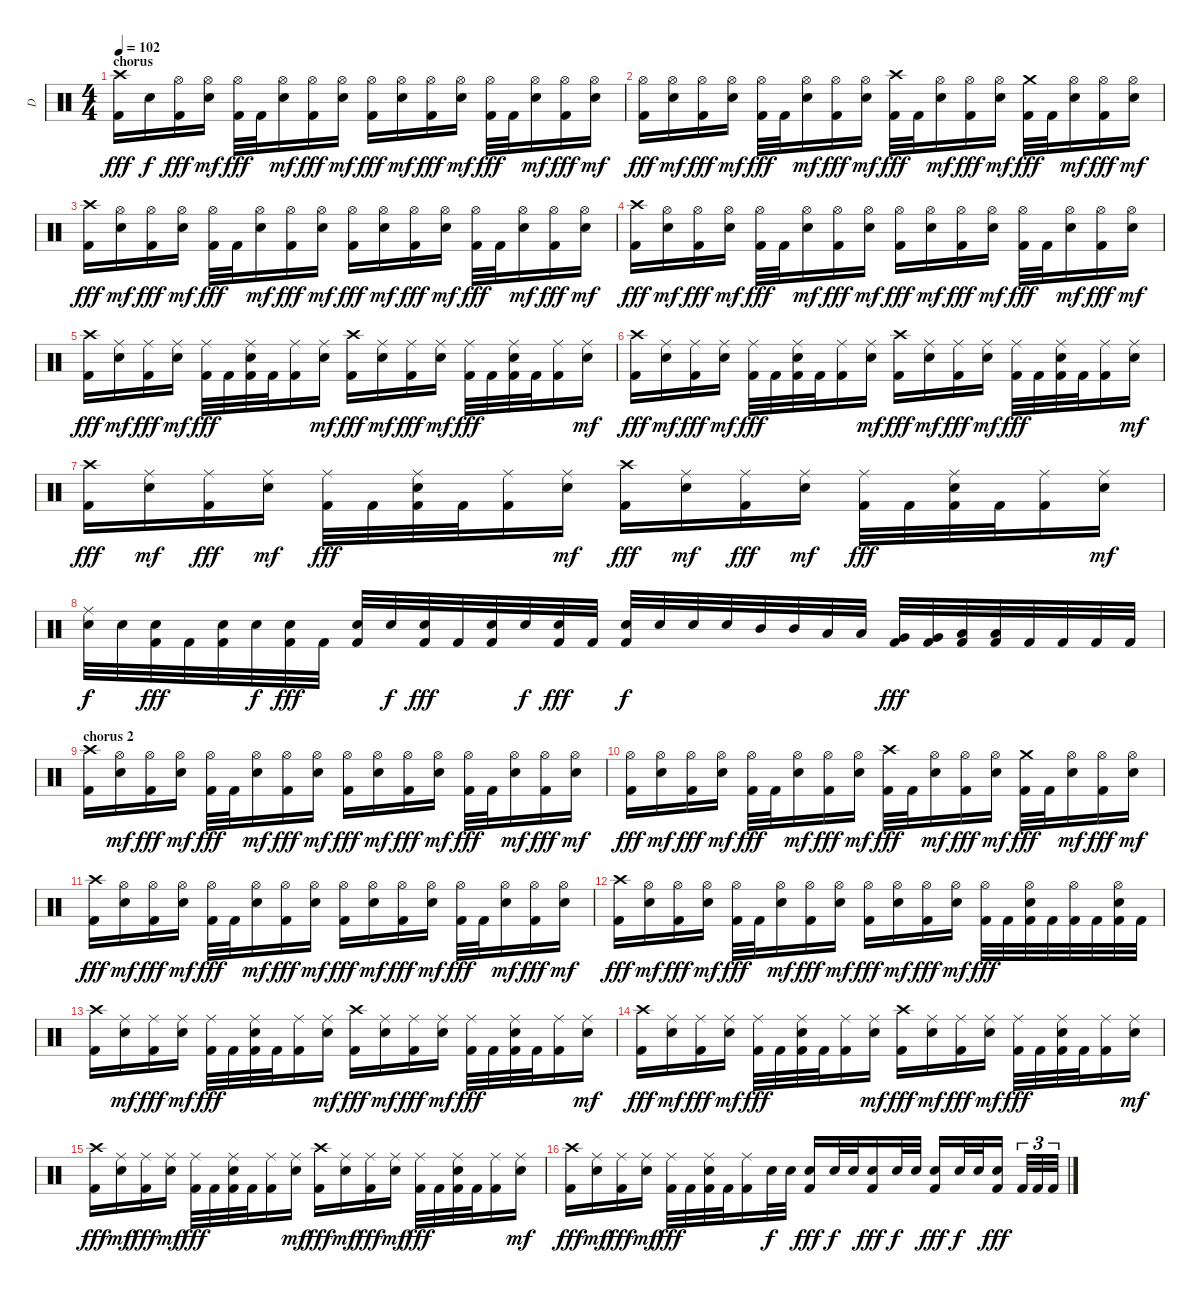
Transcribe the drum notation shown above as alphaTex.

\track ("D" "D") {instrument percussion}
\staff {score}
\articulation defaults
\ts (4 4)
\section ("" "chorus")
\tempo 102
\clef neutral
\ks c
("Crash high (hit)" "Kick (hit) 2").16{dy fff} "Snare (hit) 2".16{dy f} ("Hi-Hat (open)" "Kick (hit) 2").16{dy fff} ("Hi-Hat (open)" "Snare (hit) 2").16{dy mf} ("Hi-Hat (open)" "Kick (hit) 2").32{dy fff} "Kick (hit) 2".32 ("Hi-Hat (open)" "Snare (hit) 2").16{dy mf} ("Hi-Hat (open)" "Kick (hit) 2").16{dy fff} ("Hi-Hat (open)" "Snare (hit) 2").16{dy mf} ("Hi-Hat (open)" "Kick (hit) 2").16{dy fff} ("Hi-Hat (open)" "Snare (hit) 2").16{dy mf} ("Hi-Hat (open)" "Kick (hit) 2").16{dy fff} ("Hi-Hat (open)" "Snare (hit) 2").16{dy mf} ("Hi-Hat (open)" "Kick (hit) 2").32{dy fff} "Kick (hit) 2".32 ("Hi-Hat (open)" "Snare (hit) 2").16{dy mf} ("Hi-Hat (open)" "Kick (hit) 2").16{dy fff} ("Hi-Hat (open)" "Snare (hit) 2").16{dy mf} |
("Hi-Hat (open)" "Kick (hit) 2").16{dy fff} ("Hi-Hat (open)" "Snare (hit) 2").16{dy mf} ("Hi-Hat (open)" "Kick (hit) 2").16{dy fff} ("Hi-Hat (open)" "Snare (hit) 2").16{dy mf} ("Hi-Hat (open)" "Kick (hit) 2").32{dy fff} "Kick (hit) 2".32 ("Hi-Hat (open)" "Snare (hit) 2").16{dy mf} ("Hi-Hat (open)" "Kick (hit) 2").16{dy fff} ("Hi-Hat (open)" "Snare (hit) 2").16{dy mf} ("Crash high (hit)" "Kick (hit) 2").32{dy fff} "Kick (hit) 2".32 ("Hi-Hat (open)" "Snare (hit) 2").16{dy mf} ("Hi-Hat (open)" "Kick (hit) 2").16{dy fff} ("Hi-Hat (open)" "Snare (hit) 2").16{dy mf} ("Crash medium (hit)" "Kick (hit) 2").32{dy fff} "Kick (hit) 2".32 ("Hi-Hat (open)" "Snare (hit) 2").16{dy mf} ("Hi-Hat (open)" "Kick (hit) 2").16{dy fff} ("Hi-Hat (open)" "Snare (hit) 2").16{dy mf} |
("Crash high (hit)" "Kick (hit) 2").16{dy fff} ("Hi-Hat (open)" "Snare (hit) 2").16{dy mf} ("Hi-Hat (open)" "Kick (hit) 2").16{dy fff} ("Hi-Hat (open)" "Snare (hit) 2").16{dy mf} ("Hi-Hat (open)" "Kick (hit) 2").32{dy fff} "Kick (hit) 2".32 ("Hi-Hat (open)" "Snare (hit) 2").16{dy mf} ("Hi-Hat (open)" "Kick (hit) 2").16{dy fff} ("Hi-Hat (open)" "Snare (hit) 2").16{dy mf} ("Hi-Hat (open)" "Kick (hit) 2").16{dy fff} ("Hi-Hat (open)" "Snare (hit) 2").16{dy mf} ("Hi-Hat (open)" "Kick (hit) 2").16{dy fff} ("Hi-Hat (open)" "Snare (hit) 2").16{dy mf} ("Hi-Hat (open)" "Kick (hit) 2").32{dy fff} "Kick (hit) 2".32 ("Hi-Hat (open)" "Snare (hit) 2").16{dy mf} ("Hi-Hat (open)" "Kick (hit) 2").16{dy fff} ("Hi-Hat (open)" "Snare (hit) 2").16{dy mf} |
("Crash high (hit)" "Kick (hit) 2").16{dy fff} ("Hi-Hat (open)" "Snare (hit) 2").16{dy mf} ("Hi-Hat (open)" "Kick (hit) 2").16{dy fff} ("Hi-Hat (open)" "Snare (hit) 2").16{dy mf} ("Hi-Hat (open)" "Kick (hit) 2").32{dy fff} "Kick (hit) 2".32 ("Hi-Hat (open)" "Snare (hit) 2").16{dy mf} ("Hi-Hat (open)" "Kick (hit) 2").16{dy fff} ("Hi-Hat (open)" "Snare (hit) 2").16{dy mf} ("Hi-Hat (open)" "Kick (hit) 2").16{dy fff} ("Hi-Hat (open)" "Snare (hit) 2").16{dy mf} ("Hi-Hat (open)" "Kick (hit) 2").16{dy fff} ("Hi-Hat (open)" "Snare (hit) 2").16{dy mf} ("Hi-Hat (open)" "Kick (hit) 2").32{dy fff} "Kick (hit) 2".32 ("Hi-Hat (open)" "Snare (hit) 2").16{dy mf} ("Hi-Hat (open)" "Kick (hit) 2").16{dy fff} ("Hi-Hat (open)" "Snare (hit) 2").16{dy mf} |
("Crash high (hit)" "Kick (hit) 2").16{dy fff} ("Ride (middle)" "Snare (hit) 2").16{dy mf} ("Ride (middle)" "Kick (hit) 2").16{dy fff} ("Ride (middle)" "Snare (hit) 2").16{dy mf} ("Ride (middle)" "Kick (hit) 2").32{dy fff} "Kick (hit) 2".32 ("Ride (middle)" "Snare (hit) 2" "Kick (hit) 2").32 "Kick (hit) 2".32 ("Ride (middle)" "Kick (hit) 2").16 ("Ride (middle)" "Snare (hit) 2").16{dy mf} ("Crash high (hit)" "Kick (hit) 2").16{dy fff} ("Ride (middle)" "Snare (hit) 2").16{dy mf} ("Ride (middle)" "Kick (hit) 2").16{dy fff} ("Ride (middle)" "Snare (hit) 2").16{dy mf} ("Ride (middle)" "Kick (hit) 2").32{dy fff} "Kick (hit) 2".32 ("Ride (middle)" "Snare (hit) 2" "Kick (hit) 2").32 "Kick (hit) 2".32 ("Ride (middle)" "Kick (hit) 2").16 ("Ride (middle)" "Snare (hit) 2").16{dy mf} |
("Crash high (hit)" "Kick (hit) 2").16{dy fff} ("Ride (middle)" "Snare (hit) 2").16{dy mf} ("Ride (middle)" "Kick (hit) 2").16{dy fff} ("Ride (middle)" "Snare (hit) 2").16{dy mf} ("Ride (middle)" "Kick (hit) 2").32{dy fff} "Kick (hit) 2".32 ("Ride (middle)" "Snare (hit) 2" "Kick (hit) 2").32 "Kick (hit) 2".32 ("Ride (middle)" "Kick (hit) 2").16 ("Ride (middle)" "Snare (hit) 2").16{dy mf} ("Crash high (hit)" "Kick (hit) 2").16{dy fff} ("Ride (middle)" "Snare (hit) 2").16{dy mf} ("Ride (middle)" "Kick (hit) 2").16{dy fff} ("Ride (middle)" "Snare (hit) 2").16{dy mf} ("Ride (middle)" "Kick (hit) 2").32{dy fff} "Kick (hit) 2".32 ("Ride (middle)" "Snare (hit) 2" "Kick (hit) 2").32 "Kick (hit) 2".32 ("Ride (middle)" "Kick (hit) 2").16 ("Ride (middle)" "Snare (hit) 2").16{dy mf} |
("Crash high (hit)" "Kick (hit) 2").16{dy fff} ("Ride (middle)" "Snare (hit) 2").16{dy mf} ("Ride (middle)" "Kick (hit) 2").16{dy fff} ("Ride (middle)" "Snare (hit) 2").16{dy mf} ("Ride (middle)" "Kick (hit) 2").32{dy fff} "Kick (hit) 2".32 ("Ride (middle)" "Snare (hit) 2" "Kick (hit) 2").32 "Kick (hit) 2".32 ("Ride (middle)" "Kick (hit) 2").16 ("Ride (middle)" "Snare (hit) 2").16{dy mf} ("Crash high (hit)" "Kick (hit) 2").16{dy fff} ("Ride (middle)" "Snare (hit) 2").16{dy mf} ("Ride (middle)" "Kick (hit) 2").16{dy fff} ("Ride (middle)" "Snare (hit) 2").16{dy mf} ("Ride (middle)" "Kick (hit) 2").32{dy fff} "Kick (hit) 2".32 ("Ride (middle)" "Snare (hit) 2" "Kick (hit) 2").32 "Kick (hit) 2".32 ("Ride (middle)" "Kick (hit) 2").16 ("Ride (middle)" "Snare (hit) 2").16{dy mf} |
("Ride (middle)" "Snare (hit) 2").32{dy f} "Snare (hit) 2".32 ("Snare (hit) 2" "Kick (hit) 2").32{dy fff} "Kick (hit) 2".32 ("Snare (hit) 2" "Kick (hit) 2").32 "Snare (hit) 2".32{dy f} ("Snare (hit) 2" "Kick (hit) 2").32{dy fff} "Kick (hit) 2".32 ("Snare (hit) 2" "Kick (hit) 2").32 "Snare (hit) 2".32{dy f} ("Snare (hit) 2" "Kick (hit) 2").32{dy fff} "Kick (hit) 2".32 ("Snare (hit) 2" "Kick (hit) 2").32 "Snare (hit) 2".32{dy f} ("Snare (hit) 2" "Kick (hit) 2").32{dy fff} "Kick (hit) 2".32 ("Snare (hit) 2" "Kick (hit) 2").32{dy f} "Snare (hit) 2".32 "Snare (hit) 2".32 "Snare (hit) 2".32 "Mid Tom (hit)".32 "Mid Tom (hit)".32 "Low Tom (hit)".32 "Low Tom (hit)".32 ("Very Low Tom (hit)" "Kick (hit) 2").32{dy fff} ("Very Low Tom (hit)" "Kick (hit) 2").32 ("Low Floor Tom (hit)" "Kick (hit) 2").32 ("Low Floor Tom (hit)" "Kick (hit) 2").32 "Kick (hit) 2".32 "Kick (hit) 2".32 "Kick (hit) 2".32 "Kick (hit) 2".32 |
\section ("" "chorus 2")
("Crash high (hit)" "Kick (hit) 2").16 ("Hi-Hat (open)" "Snare (hit) 2").16{dy mf} ("Hi-Hat (open)" "Kick (hit) 2").16{dy fff} ("Hi-Hat (open)" "Snare (hit) 2").16{dy mf} ("Hi-Hat (open)" "Kick (hit) 2").32{dy fff} "Kick (hit) 2".32 ("Hi-Hat (open)" "Snare (hit) 2").16{dy mf} ("Hi-Hat (open)" "Kick (hit) 2").16{dy fff} ("Hi-Hat (open)" "Snare (hit) 2").16{dy mf} ("Hi-Hat (open)" "Kick (hit) 2").16{dy fff} ("Hi-Hat (open)" "Snare (hit) 2").16{dy mf} ("Hi-Hat (open)" "Kick (hit) 2").16{dy fff} ("Hi-Hat (open)" "Snare (hit) 2").16{dy mf} ("Hi-Hat (open)" "Kick (hit) 2").32{dy fff} "Kick (hit) 2".32 ("Hi-Hat (open)" "Snare (hit) 2").16{dy mf} ("Hi-Hat (open)" "Kick (hit) 2").16{dy fff} ("Hi-Hat (open)" "Snare (hit) 2").16{dy mf} |
("Hi-Hat (open)" "Kick (hit) 2").16{dy fff} ("Hi-Hat (open)" "Snare (hit) 2").16{dy mf} ("Hi-Hat (open)" "Kick (hit) 2").16{dy fff} ("Hi-Hat (open)" "Snare (hit) 2").16{dy mf} ("Hi-Hat (open)" "Kick (hit) 2").32{dy fff} "Kick (hit) 2".32 ("Hi-Hat (open)" "Snare (hit) 2").16{dy mf} ("Hi-Hat (open)" "Kick (hit) 2").16{dy fff} ("Hi-Hat (open)" "Snare (hit) 2").16{dy mf} ("Crash high (hit)" "Kick (hit) 2").32{dy fff} "Kick (hit) 2".32 ("Hi-Hat (open)" "Snare (hit) 2").16{dy mf} ("Hi-Hat (open)" "Kick (hit) 2").16{dy fff} ("Hi-Hat (open)" "Snare (hit) 2").16{dy mf} ("Crash medium (hit)" "Kick (hit) 2").32{dy fff} "Kick (hit) 2".32 ("Hi-Hat (open)" "Snare (hit) 2").16{dy mf} ("Hi-Hat (open)" "Kick (hit) 2").16{dy fff} ("Hi-Hat (open)" "Snare (hit) 2").16{dy mf} |
("Crash high (hit)" "Kick (hit) 2").16{dy fff} ("Hi-Hat (open)" "Snare (hit) 2").16{dy mf} ("Hi-Hat (open)" "Kick (hit) 2").16{dy fff} ("Hi-Hat (open)" "Snare (hit) 2").16{dy mf} ("Hi-Hat (open)" "Kick (hit) 2").32{dy fff} "Kick (hit) 2".32 ("Hi-Hat (open)" "Snare (hit) 2").16{dy mf} ("Hi-Hat (open)" "Kick (hit) 2").16{dy fff} ("Hi-Hat (open)" "Snare (hit) 2").16{dy mf} ("Hi-Hat (open)" "Kick (hit) 2").16{dy fff} ("Hi-Hat (open)" "Snare (hit) 2").16{dy mf} ("Hi-Hat (open)" "Kick (hit) 2").16{dy fff} ("Hi-Hat (open)" "Snare (hit) 2").16{dy mf} ("Hi-Hat (open)" "Kick (hit) 2").32{dy fff} "Kick (hit) 2".32 ("Hi-Hat (open)" "Snare (hit) 2").16{dy mf} ("Hi-Hat (open)" "Kick (hit) 2").16{dy fff} ("Hi-Hat (open)" "Snare (hit) 2").16{dy mf} |
("Crash high (hit)" "Kick (hit) 2").16{dy fff} ("Hi-Hat (open)" "Snare (hit) 2").16{dy mf} ("Hi-Hat (open)" "Kick (hit) 2").16{dy fff} ("Hi-Hat (open)" "Snare (hit) 2").16{dy mf} ("Hi-Hat (open)" "Kick (hit) 2").32{dy fff} "Kick (hit) 2".32 ("Hi-Hat (open)" "Snare (hit) 2").16{dy mf} ("Hi-Hat (open)" "Kick (hit) 2").16{dy fff} ("Hi-Hat (open)" "Snare (hit) 2").16{dy mf} ("Hi-Hat (open)" "Kick (hit) 2").16{dy fff} ("Hi-Hat (open)" "Snare (hit) 2").16{dy mf} ("Hi-Hat (open)" "Kick (hit) 2").16{dy fff} ("Hi-Hat (open)" "Snare (hit) 2").16{dy mf} ("Hi-Hat (open)" "Kick (hit) 2").32{dy fff} "Kick (hit) 2".32 ("Hi-Hat (open)" "Snare (hit) 2" "Kick (hit) 2").32 "Kick (hit) 2".32 ("Hi-Hat (open)" "Kick (hit) 2").32 "Kick (hit) 2".32 ("Hi-Hat (open)" "Snare (hit) 2" "Kick (hit) 2").32 "Kick (hit) 2".32 |
("Crash high (hit)" "Kick (hit) 2").16 ("Ride (middle)" "Snare (hit) 2").16{dy mf} ("Ride (middle)" "Kick (hit) 2").16{dy fff} ("Ride (middle)" "Snare (hit) 2").16{dy mf} ("Ride (middle)" "Kick (hit) 2").32{dy fff} "Kick (hit) 2".32 ("Ride (middle)" "Snare (hit) 2" "Kick (hit) 2").32 "Kick (hit) 2".32 ("Ride (middle)" "Kick (hit) 2").16 ("Ride (middle)" "Snare (hit) 2").16{dy mf} ("Crash high (hit)" "Kick (hit) 2").16{dy fff} ("Ride (middle)" "Snare (hit) 2").16{dy mf} ("Ride (middle)" "Kick (hit) 2").16{dy fff} ("Ride (middle)" "Snare (hit) 2").16{dy mf} ("Ride (middle)" "Kick (hit) 2").32{dy fff} "Kick (hit) 2".32 ("Ride (middle)" "Snare (hit) 2" "Kick (hit) 2").32 "Kick (hit) 2".32 ("Ride (middle)" "Kick (hit) 2").16 ("Ride (middle)" "Snare (hit) 2").16{dy mf} |
("Crash high (hit)" "Kick (hit) 2").16{dy fff} ("Ride (middle)" "Snare (hit) 2").16{dy mf} ("Ride (middle)" "Kick (hit) 2").16{dy fff} ("Ride (middle)" "Snare (hit) 2").16{dy mf} ("Ride (middle)" "Kick (hit) 2").32{dy fff} "Kick (hit) 2".32 ("Ride (middle)" "Snare (hit) 2" "Kick (hit) 2").32 "Kick (hit) 2".32 ("Ride (middle)" "Kick (hit) 2").16 ("Ride (middle)" "Snare (hit) 2").16{dy mf} ("Crash high (hit)" "Kick (hit) 2").16{dy fff} ("Ride (middle)" "Snare (hit) 2").16{dy mf} ("Ride (middle)" "Kick (hit) 2").16{dy fff} ("Ride (middle)" "Snare (hit) 2").16{dy mf} ("Ride (middle)" "Kick (hit) 2").32{dy fff} "Kick (hit) 2".32 ("Ride (middle)" "Snare (hit) 2" "Kick (hit) 2").32 "Kick (hit) 2".32 ("Ride (middle)" "Kick (hit) 2").16 ("Ride (middle)" "Snare (hit) 2").16{dy mf} |
("Crash high (hit)" "Kick (hit) 2").16{dy fff} ("Ride (middle)" "Snare (hit) 2").16{dy mf} ("Ride (middle)" "Kick (hit) 2").16{dy fff} ("Ride (middle)" "Snare (hit) 2").16{dy mf} ("Ride (middle)" "Kick (hit) 2").32{dy fff} "Kick (hit) 2".32 ("Ride (middle)" "Snare (hit) 2" "Kick (hit) 2").32 "Kick (hit) 2".32 ("Ride (middle)" "Kick (hit) 2").16 ("Ride (middle)" "Snare (hit) 2").16{dy mf} ("Crash high (hit)" "Kick (hit) 2").16{dy fff} ("Ride (middle)" "Snare (hit) 2").16{dy mf} ("Ride (middle)" "Kick (hit) 2").16{dy fff} ("Ride (middle)" "Snare (hit) 2").16{dy mf} ("Ride (middle)" "Kick (hit) 2").32{dy fff} "Kick (hit) 2".32 ("Ride (middle)" "Snare (hit) 2" "Kick (hit) 2").32 "Kick (hit) 2".32 ("Ride (middle)" "Kick (hit) 2").16 ("Ride (middle)" "Snare (hit) 2").16{dy mf} |
("Crash high (hit)" "Kick (hit) 2").16{dy fff} ("Ride (middle)" "Snare (hit) 2").16{dy mf} ("Ride (middle)" "Kick (hit) 2").16{dy fff} ("Ride (middle)" "Snare (hit) 2").16{dy mf} ("Ride (middle)" "Kick (hit) 2").32{dy fff} "Kick (hit) 2".32 ("Ride (middle)" "Snare (hit) 2" "Kick (hit) 2").32 "Kick (hit) 2".32 ("Ride (middle)" "Kick (hit) 2").16 "Snare (hit) 2".32{dy f} "Snare (hit) 2".32 ("Snare (hit) 2" "Kick (hit) 2").16{dy fff} "Snare (hit) 2".32{dy f} "Snare (hit) 2".32 ("Snare (hit) 2" "Kick (hit) 2").16{dy fff} "Snare (hit) 2".32{dy f} "Snare (hit) 2".32 ("Snare (hit) 2" "Kick (hit) 2").16{dy fff} "Snare (hit) 2".32{dy f} "Snare (hit) 2".32 ("Snare (hit) 2" "Kick (hit) 2").16{dy fff} "Kick (hit) 2".32{tu (3 2)} "Kick (hit) 2".32{tu (3 2)} "Kick (hit) 2".32{tu (3 2)}
